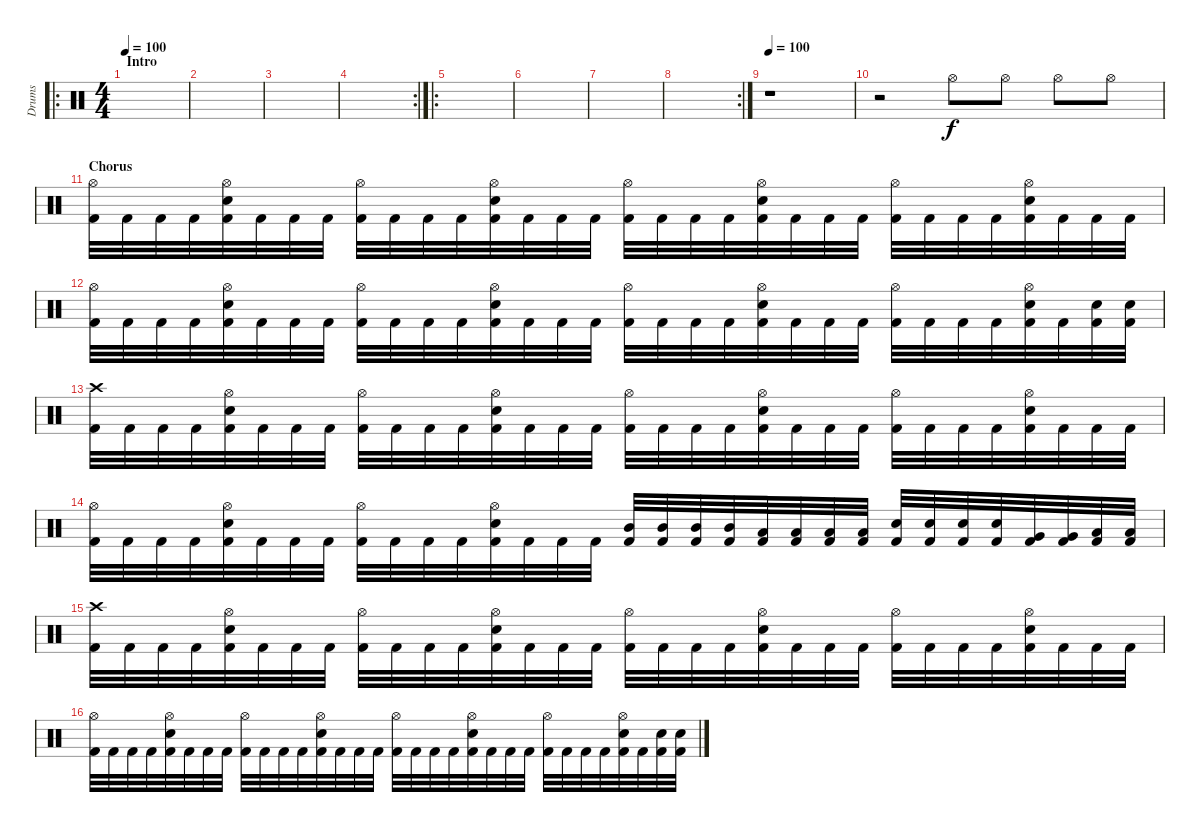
\track ("Drums" "Drums") {instrument percussion}
\staff {score}
\articulation defaults
\ro
\ts (4 4)
\section ("" "Intro")
\tempo 100
\tempo 111
\tempo 100
\clef neutral
\ks c
|
|
|
\rc 2
|
\ro
|
|
|
\rc 2
|
\tempo 100
r.1 |
r.2 "Hi-Hat (open)".8 "Hi-Hat (open)".8 "Hi-Hat (open)".8 "Hi-Hat (open)".8 |
\section ("" "Chorus")
("Hi-Hat (open)" "Kick (hit) 2").32 "Kick (hit) 2".32 "Kick (hit) 2".32 "Kick (hit) 2".32 ("Hi-Hat (open)" "Electric Snare (hit)" "Kick (hit) 2").32 "Kick (hit) 2".32 "Kick (hit) 2".32 "Kick (hit) 2".32 ("Hi-Hat (open)" "Kick (hit) 2").32 "Kick (hit) 2".32 "Kick (hit) 2".32 "Kick (hit) 2".32 ("Hi-Hat (open)" "Electric Snare (hit)" "Kick (hit) 2").32 "Kick (hit) 2".32 "Kick (hit) 2".32 "Kick (hit) 2".32 ("Hi-Hat (open)" "Kick (hit) 2").32 "Kick (hit) 2".32 "Kick (hit) 2".32 "Kick (hit) 2".32 ("Hi-Hat (open)" "Electric Snare (hit)" "Kick (hit) 2").32 "Kick (hit) 2".32 "Kick (hit) 2".32 "Kick (hit) 2".32 ("Hi-Hat (open)" "Kick (hit) 2").32 "Kick (hit) 2".32 "Kick (hit) 2".32 "Kick (hit) 2".32 ("Hi-Hat (open)" "Electric Snare (hit)" "Kick (hit) 2").32 "Kick (hit) 2".32 "Kick (hit) 2".32 "Kick (hit) 2".32 |
("Hi-Hat (open)" "Kick (hit) 2").32 "Kick (hit) 2".32 "Kick (hit) 2".32 "Kick (hit) 2".32 ("Hi-Hat (open)" "Electric Snare (hit)" "Kick (hit) 2").32 "Kick (hit) 2".32 "Kick (hit) 2".32 "Kick (hit) 2".32 ("Hi-Hat (open)" "Kick (hit) 2").32 "Kick (hit) 2".32 "Kick (hit) 2".32 "Kick (hit) 2".32 ("Hi-Hat (open)" "Electric Snare (hit)" "Kick (hit) 2").32 "Kick (hit) 2".32 "Kick (hit) 2".32 "Kick (hit) 2".32 ("Hi-Hat (open)" "Kick (hit) 2").32 "Kick (hit) 2".32 "Kick (hit) 2".32 "Kick (hit) 2".32 ("Hi-Hat (open)" "Electric Snare (hit)" "Kick (hit) 2").32 "Kick (hit) 2".32 "Kick (hit) 2".32 "Kick (hit) 2".32 ("Hi-Hat (open)" "Kick (hit) 2").32 "Kick (hit) 2".32 "Kick (hit) 2".32 "Kick (hit) 2".32 ("Hi-Hat (open)" "Electric Snare (hit)" "Kick (hit) 2").32 "Kick (hit) 2".32 ("Electric Snare (hit)" "Kick (hit) 2").32 ("Electric Snare (hit)" "Kick (hit) 2").32 |
("Crash high (hit)" "Kick (hit) 2").32 "Kick (hit) 2".32 "Kick (hit) 2".32 "Kick (hit) 2".32 ("Hi-Hat (open)" "Electric Snare (hit)" "Kick (hit) 2").32 "Kick (hit) 2".32 "Kick (hit) 2".32 "Kick (hit) 2".32 ("Hi-Hat (open)" "Kick (hit) 2").32 "Kick (hit) 2".32 "Kick (hit) 2".32 "Kick (hit) 2".32 ("Hi-Hat (open)" "Electric Snare (hit)" "Kick (hit) 2").32 "Kick (hit) 2".32 "Kick (hit) 2".32 "Kick (hit) 2".32 ("Hi-Hat (open)" "Kick (hit) 2").32 "Kick (hit) 2".32 "Kick (hit) 2".32 "Kick (hit) 2".32 ("Hi-Hat (open)" "Electric Snare (hit)" "Kick (hit) 2").32 "Kick (hit) 2".32 "Kick (hit) 2".32 "Kick (hit) 2".32 ("Hi-Hat (open)" "Kick (hit) 2").32 "Kick (hit) 2".32 "Kick (hit) 2".32 "Kick (hit) 2".32 ("Hi-Hat (open)" "Electric Snare (hit)" "Kick (hit) 2").32 "Kick (hit) 2".32 "Kick (hit) 2".32 "Kick (hit) 2".32 |
("Hi-Hat (open)" "Kick (hit) 2").32 "Kick (hit) 2".32 "Kick (hit) 2".32 "Kick (hit) 2".32 ("Hi-Hat (open)" "Electric Snare (hit)" "Kick (hit) 2").32 "Kick (hit) 2".32 "Kick (hit) 2".32 "Kick (hit) 2".32 ("Hi-Hat (open)" "Kick (hit) 2").32 "Kick (hit) 2".32 "Kick (hit) 2".32 "Kick (hit) 2".32 ("Hi-Hat (open)" "Electric Snare (hit)" "Kick (hit) 2").32 "Kick (hit) 2".32 "Kick (hit) 2".32 "Kick (hit) 2".32 ("Mid Tom (hit)" "Kick (hit) 2").32 ("Mid Tom (hit)" "Kick (hit) 2").32 ("Mid Tom (hit)" "Kick (hit) 2").32 ("Mid Tom (hit)" "Kick (hit) 2").32 ("Low Tom (hit)" "Kick (hit) 2").32 ("Low Tom (hit)" "Kick (hit) 2").32 ("Low Tom (hit)" "Kick (hit) 2").32 ("Low Tom (hit)" "Kick (hit) 2").32 ("Electric Snare (hit)" "Kick (hit) 2").32 ("Electric Snare (hit)" "Kick (hit) 2").32 ("Electric Snare (hit)" "Kick (hit) 2").32 ("Electric Snare (hit)" "Kick (hit) 2").32 ("Very Low Tom (hit)" "Kick (hit) 2").32 ("Very Low Tom (hit)" "Kick (hit) 2").32 ("Low Floor Tom (hit)" "Kick (hit) 2").32 ("Low Floor Tom (hit)" "Kick (hit) 2").32 |
("Crash high (hit)" "Kick (hit) 2").32 "Kick (hit) 2".32 "Kick (hit) 2".32 "Kick (hit) 2".32 ("Hi-Hat (open)" "Electric Snare (hit)" "Kick (hit) 2").32 "Kick (hit) 2".32 "Kick (hit) 2".32 "Kick (hit) 2".32 ("Hi-Hat (open)" "Kick (hit) 2").32 "Kick (hit) 2".32 "Kick (hit) 2".32 "Kick (hit) 2".32 ("Hi-Hat (open)" "Electric Snare (hit)" "Kick (hit) 2").32 "Kick (hit) 2".32 "Kick (hit) 2".32 "Kick (hit) 2".32 ("Hi-Hat (open)" "Kick (hit) 2").32 "Kick (hit) 2".32 "Kick (hit) 2".32 "Kick (hit) 2".32 ("Hi-Hat (open)" "Electric Snare (hit)" "Kick (hit) 2").32 "Kick (hit) 2".32 "Kick (hit) 2".32 "Kick (hit) 2".32 ("Hi-Hat (open)" "Kick (hit) 2").32 "Kick (hit) 2".32 "Kick (hit) 2".32 "Kick (hit) 2".32 ("Hi-Hat (open)" "Electric Snare (hit)" "Kick (hit) 2").32 "Kick (hit) 2".32 "Kick (hit) 2".32 "Kick (hit) 2".32 |
("Hi-Hat (open)" "Kick (hit) 2").32 "Kick (hit) 2".32 "Kick (hit) 2".32 "Kick (hit) 2".32 ("Hi-Hat (open)" "Electric Snare (hit)" "Kick (hit) 2").32 "Kick (hit) 2".32 "Kick (hit) 2".32 "Kick (hit) 2".32 ("Hi-Hat (open)" "Kick (hit) 2").32 "Kick (hit) 2".32 "Kick (hit) 2".32 "Kick (hit) 2".32 ("Hi-Hat (open)" "Electric Snare (hit)" "Kick (hit) 2").32 "Kick (hit) 2".32 "Kick (hit) 2".32 "Kick (hit) 2".32 ("Hi-Hat (open)" "Kick (hit) 2").32 "Kick (hit) 2".32 "Kick (hit) 2".32 "Kick (hit) 2".32 ("Hi-Hat (open)" "Electric Snare (hit)" "Kick (hit) 2").32 "Kick (hit) 2".32 "Kick (hit) 2".32 "Kick (hit) 2".32 ("Hi-Hat (open)" "Kick (hit) 2").32 "Kick (hit) 2".32 "Kick (hit) 2".32 "Kick (hit) 2".32 ("Hi-Hat (open)" "Electric Snare (hit)" "Kick (hit) 2").32 "Kick (hit) 2".32 ("Electric Snare (hit)" "Kick (hit) 2").32 ("Electric Snare (hit)" "Kick (hit) 2").32
